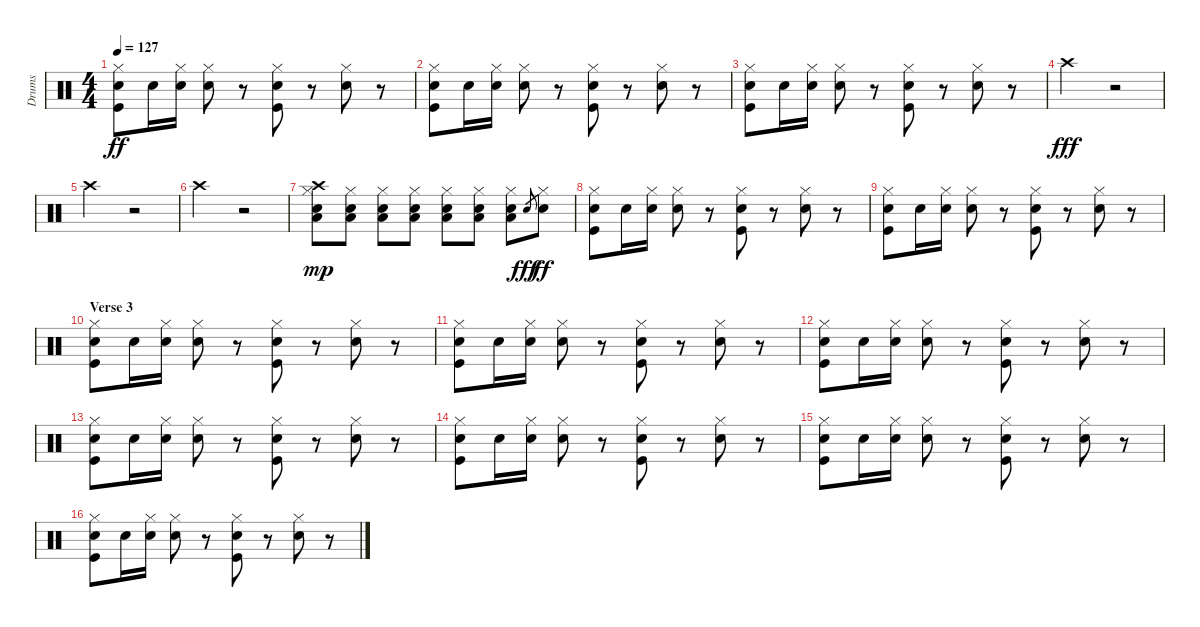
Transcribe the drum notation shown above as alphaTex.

\track ("Drums" "Drums") {instrument percussion}
\staff {score}
\articulation defaults
\ts (4 4)
\tempo 127
\clef neutral
\ks c
("Hi-Hat (closed)" "Electric Snare (hit)" "Kick (hit)").8{dy ff} "Electric Snare (hit)".16 ("Hi-Hat (closed)" "Electric Snare (hit)").16 ("Hi-Hat (closed)" "Electric Snare (hit)").8 r.8 ("Hi-Hat (closed)" "Electric Snare (hit)" "Kick (hit)").8 r.8 ("Hi-Hat (closed)" "Electric Snare (hit)").8 r.8 |
("Hi-Hat (closed)" "Electric Snare (hit)" "Kick (hit)").8 "Electric Snare (hit)".16 ("Hi-Hat (closed)" "Electric Snare (hit)").16 ("Hi-Hat (closed)" "Electric Snare (hit)").8 r.8 ("Hi-Hat (closed)" "Electric Snare (hit)" "Kick (hit)").8 r.8 ("Hi-Hat (closed)" "Electric Snare (hit)").8 r.8 |
("Hi-Hat (closed)" "Electric Snare (hit)" "Kick (hit)").8 "Electric Snare (hit)".16 ("Hi-Hat (closed)" "Electric Snare (hit)").16 ("Hi-Hat (closed)" "Electric Snare (hit)").8 r.8 ("Hi-Hat (closed)" "Electric Snare (hit)" "Kick (hit)").8 r.8 ("Hi-Hat (closed)" "Electric Snare (hit)").8 r.8 |
"Crash high (hit)".2{dy fff} r.2 |
"Crash high (hit)".2 r.2 |
"Crash high (hit)".2 r.2 |
("Crash high (hit)" "Hi-Hat (closed)" "Electric Snare (hit)" "Low Floor Tom (hit)").8{dy mp} ("Hi-Hat (closed)" "Electric Snare (hit)" "Low Floor Tom (hit)").8 ("Hi-Hat (closed)" "Electric Snare (hit)" "Low Floor Tom (hit)").8 ("Hi-Hat (closed)" "Electric Snare (hit)" "Low Floor Tom (hit)").8 ("Hi-Hat (closed)" "Electric Snare (hit)" "Low Floor Tom (hit)").8 ("Hi-Hat (closed)" "Electric Snare (hit)" "Low Floor Tom (hit)").8 ("Hi-Hat (closed)" "Electric Snare (hit)" "Low Floor Tom (hit)").8 "Electric Snare (hit)".8{gr dy fff} ("Hi-Hat (closed)" "Electric Snare (hit)").8{dy ff} |
("Hi-Hat (closed)" "Electric Snare (hit)" "Kick (hit)").8 "Electric Snare (hit)".16 ("Hi-Hat (closed)" "Electric Snare (hit)").16 ("Hi-Hat (closed)" "Electric Snare (hit)").8 r.8 ("Hi-Hat (closed)" "Electric Snare (hit)" "Kick (hit)").8 r.8 ("Hi-Hat (closed)" "Electric Snare (hit)").8 r.8 |
("Hi-Hat (closed)" "Electric Snare (hit)" "Kick (hit)").8 "Electric Snare (hit)".16 ("Hi-Hat (closed)" "Electric Snare (hit)").16 ("Hi-Hat (closed)" "Electric Snare (hit)").8 r.8 ("Hi-Hat (closed)" "Electric Snare (hit)" "Kick (hit)").8 r.8 ("Hi-Hat (closed)" "Electric Snare (hit)").8 r.8 |
\section ("" "Verse 3")
("Hi-Hat (closed)" "Electric Snare (hit)" "Kick (hit)").8 "Electric Snare (hit)".16 ("Hi-Hat (closed)" "Electric Snare (hit)").16 ("Hi-Hat (closed)" "Electric Snare (hit)").8 r.8 ("Hi-Hat (closed)" "Electric Snare (hit)" "Kick (hit)").8 r.8 ("Hi-Hat (closed)" "Electric Snare (hit)").8 r.8 |
("Hi-Hat (closed)" "Electric Snare (hit)" "Kick (hit)").8 "Electric Snare (hit)".16 ("Hi-Hat (closed)" "Electric Snare (hit)").16 ("Hi-Hat (closed)" "Electric Snare (hit)").8 r.8 ("Hi-Hat (closed)" "Electric Snare (hit)" "Kick (hit)").8 r.8 ("Hi-Hat (closed)" "Electric Snare (hit)").8 r.8 |
("Hi-Hat (closed)" "Electric Snare (hit)" "Kick (hit)").8 "Electric Snare (hit)".16 ("Hi-Hat (closed)" "Electric Snare (hit)").16 ("Hi-Hat (closed)" "Electric Snare (hit)").8 r.8 ("Hi-Hat (closed)" "Electric Snare (hit)" "Kick (hit)").8 r.8 ("Hi-Hat (closed)" "Electric Snare (hit)").8 r.8 |
("Hi-Hat (closed)" "Electric Snare (hit)" "Kick (hit)").8 "Electric Snare (hit)".16 ("Hi-Hat (closed)" "Electric Snare (hit)").16 ("Hi-Hat (closed)" "Electric Snare (hit)").8 r.8 ("Hi-Hat (closed)" "Electric Snare (hit)" "Kick (hit)").8 r.8 ("Hi-Hat (closed)" "Electric Snare (hit)").8 r.8 |
("Hi-Hat (closed)" "Electric Snare (hit)" "Kick (hit)").8 "Electric Snare (hit)".16 ("Hi-Hat (closed)" "Electric Snare (hit)").16 ("Hi-Hat (closed)" "Electric Snare (hit)").8 r.8 ("Hi-Hat (closed)" "Electric Snare (hit)" "Kick (hit)").8 r.8 ("Hi-Hat (closed)" "Electric Snare (hit)").8 r.8 |
("Hi-Hat (closed)" "Electric Snare (hit)" "Kick (hit)").8 "Electric Snare (hit)".16 ("Hi-Hat (closed)" "Electric Snare (hit)").16 ("Hi-Hat (closed)" "Electric Snare (hit)").8 r.8 ("Hi-Hat (closed)" "Electric Snare (hit)" "Kick (hit)").8 r.8 ("Hi-Hat (closed)" "Electric Snare (hit)").8 r.8 |
("Hi-Hat (closed)" "Electric Snare (hit)" "Kick (hit)").8 "Electric Snare (hit)".16 ("Hi-Hat (closed)" "Electric Snare (hit)").16 ("Hi-Hat (closed)" "Electric Snare (hit)").8 r.8 ("Hi-Hat (closed)" "Electric Snare (hit)" "Kick (hit)").8 r.8 ("Hi-Hat (closed)" "Electric Snare (hit)").8 r.8
